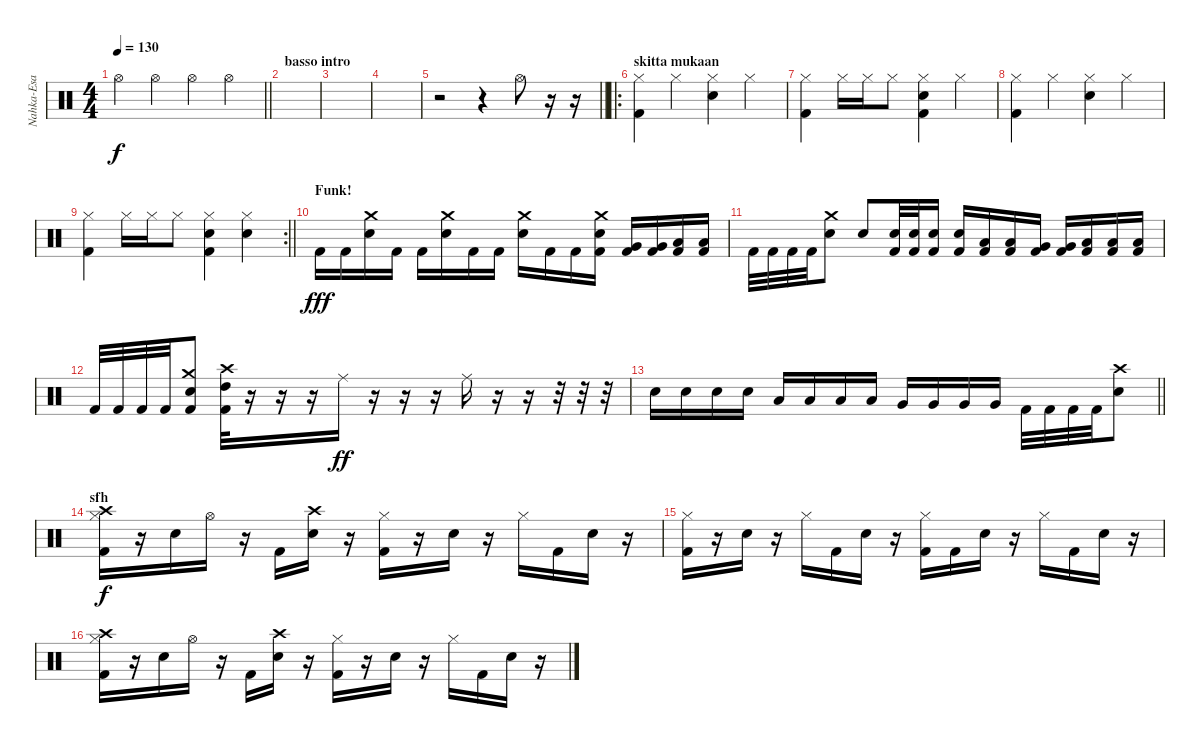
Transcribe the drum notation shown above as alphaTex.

\track ("Nahka-Esa" "Nahka-Esa") {instrument percussion}
\staff {score}
\articulation defaults
\ts (4 4)
\tempo 130
\clef neutral
\barLineRight lightlight
\ks c "Hi-Hat (open)".4{dy f} "Hi-Hat (open)".4 "Hi-Hat (open)".4 "Hi-Hat (open)".4
|
\section ("" "basso intro")
|
|
|
\barLineRight lightlight
r.2 r.4 "Hi-Hat (open)".8 r.16 r.16 |
\ro
\section ("" "skitta mukaan")
("Hi-Hat (closed)" "Kick (hit) 2").4 "Hi-Hat (closed)".4 ("Hi-Hat (closed)" "Snare (hit) 2").4 "Hi-Hat (closed)".4 |
("Hi-Hat (closed)" "Kick (hit) 2").4 "Hi-Hat (closed)".16 "Hi-Hat (closed)".16 "Hi-Hat (closed)".8 ("Hi-Hat (closed)" "Snare (hit) 2" "Kick (hit) 2").4 "Hi-Hat (closed)".4 |
("Hi-Hat (closed)" "Kick (hit) 2").4 "Hi-Hat (closed)".4 ("Hi-Hat (closed)" "Snare (hit) 2").4 "Hi-Hat (closed)".4 |
\rc 2
\barLineRight lightlight
("Hi-Hat (closed)" "Kick (hit) 2").4 "Hi-Hat (closed)".16 "Hi-Hat (closed)".16 "Hi-Hat (closed)".8 ("Hi-Hat (closed)" "Snare (hit) 2" "Kick (hit) 2").4 ("Hi-Hat (closed)" "Snare (hit) 2").4 |
\section ("" "Funk!")
"Kick (hit) 2".16{dy fff} "Kick (hit) 2".16 ("Crash medium (hit)" "Electric Snare (hit)").16 "Kick (hit) 2".16 "Kick (hit) 2".16 ("Crash medium (hit)" "Electric Snare (hit)").16 "Kick (hit) 2".16 "Kick (hit) 2".16 ("Crash medium (hit)" "Electric Snare (hit)").16 "Kick (hit) 2".16 "Kick (hit) 2".16 ("Crash medium (hit)" "Electric Snare (hit)" "Kick (hit) 2").16 ("Very Low Tom (hit)" "Kick (hit) 2").16 ("Very Low Tom (hit)" "Kick (hit) 2").16 ("Low Floor Tom (hit)" "Kick (hit) 2").16 ("Low Floor Tom (hit)" "Kick (hit) 2").16 |
"Kick (hit) 2".32 "Kick (hit) 2".32 "Kick (hit) 2".32 "Kick (hit) 2".32 ("Crash medium (hit)" "Electric Snare (hit)").8 "Electric Snare (hit)".8 ("Electric Snare (hit)" "Kick (hit) 2").32 ("Electric Snare (hit)" "Kick (hit) 2").32 ("Electric Snare (hit)" "Kick (hit) 2").16 ("Electric Snare (hit)" "Kick (hit) 2").16 ("Low Tom (hit)" "Kick (hit) 2").16 ("Low Tom (hit)" "Kick (hit) 2").16 ("Very Low Tom (hit)" "Kick (hit) 2").16 ("Very Low Tom (hit)" "Kick (hit) 2").16 ("Low Floor Tom (hit)" "Kick (hit) 2").16 ("Low Floor Tom (hit)" "Kick (hit) 2").16 ("Low Floor Tom (hit)" "Kick (hit) 2").16 |
"Kick (hit) 2".32 "Kick (hit) 2".32 "Kick (hit) 2".32 "Kick (hit) 2".32 ("Crash medium (hit)" "Electric Snare (hit)" "Kick (hit) 2").8 ("Crash high (hit)" "High Tom (hit)" "Kick (hit) 2").32 r.16 r.16 r.16 "Ride (middle)".16{dy ff} r.16 r.16 r.16 "Ride (middle)".16 r.16 r.16 r.32 r.32 r.32 |
\barLineRight lightlight "Electric Snare (hit)".16 "Electric Snare (hit)".16 "Electric Snare (hit)".16 "Electric Snare (hit)".16 "Low Tom (hit)".16 "Low Tom (hit)".16 "Low Tom (hit)".16 "Low Tom (hit)".16 "Very Low Tom (hit)".16 "Very Low Tom (hit)".16 "Very Low Tom (hit)".16 "Very Low Tom (hit)".16 "Kick (hit) 2".32 "Kick (hit) 2".32 "Kick (hit) 2".32 "Kick (hit) 2".32
("Crash high (hit)" "Electric Snare (hit)").8 |
\section ("" "sfh")
("Crash high (hit)" "Hi-Hat (closed)" "Kick (hit) 2").16{dy f} r.16 "Snare (hit) 2".16 "Hi-Hat (open)".16 r.16 "Kick (hit) 2".16 ("Crash high (hit)" "Snare (hit) 2").16 r.16 ("Hi-Hat (closed)" "Kick (hit) 2").16 r.16 "Snare (hit) 2".16 r.16 "Hi-Hat (closed)".16 "Kick (hit) 2".16 "Snare (hit) 2".16 r.16 |
("Hi-Hat (closed)" "Kick (hit) 2").16 r.16 "Snare (hit) 2".16 r.16 "Hi-Hat (closed)".16 "Kick (hit) 2".16 "Snare (hit) 2".16 r.16 ("Hi-Hat (closed)" "Kick (hit) 2").16 "Kick (hit) 2".16 "Snare (hit) 2".16 r.16 "Hi-Hat (closed)".16 "Kick (hit) 2".16 "Snare (hit) 2".16 r.16 |
("Crash high (hit)" "Hi-Hat (closed)" "Kick (hit) 2").16 r.16 "Snare (hit) 2".16 "Hi-Hat (open)".16 r.16 "Kick (hit) 2".16 ("Crash high (hit)" "Snare (hit) 2").16 r.16 ("Hi-Hat (closed)" "Kick (hit) 2").16 r.16 "Snare (hit) 2".16 r.16 "Hi-Hat (closed)".16 "Kick (hit) 2".16 "Snare (hit) 2".16 r.16
